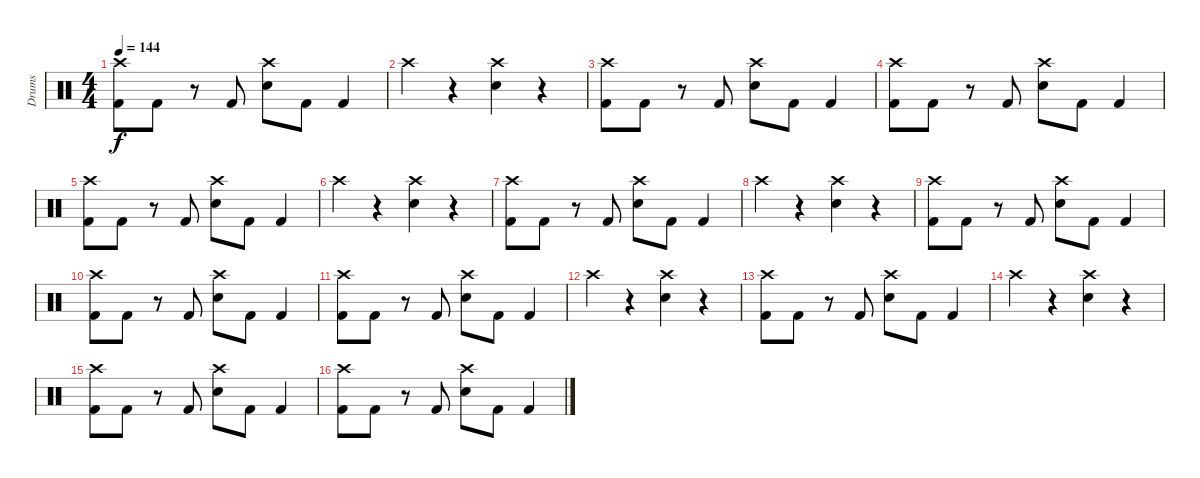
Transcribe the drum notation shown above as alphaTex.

\track ("Drums" "Drums") {instrument percussion}
\staff {score}
\articulation defaults
\ts (4 4)
\tempo 144
\clef neutral
\ks c
("Crash high (hit)" "Kick (hit) 2").8{dy f} "Kick (hit) 2".8 r.8 "Kick (hit) 2".8 ("Crash high (hit)" "Electric Snare (hit)").8 "Kick (hit) 2".8 "Kick (hit) 2".4 |
"Crash high (hit)".4 r.4 ("Crash high (hit)" "Electric Snare (hit)").4 r.4 |
("Crash high (hit)" "Kick (hit) 2").8 "Kick (hit) 2".8 r.8 "Kick (hit) 2".8 ("Crash high (hit)" "Electric Snare (hit)").8 "Kick (hit) 2".8 "Kick (hit) 2".4 |
("Crash high (hit)" "Kick (hit) 2").8 "Kick (hit) 2".8 r.8 "Kick (hit) 2".8 ("Crash high (hit)" "Electric Snare (hit)").8 "Kick (hit) 2".8 "Kick (hit) 2".4 |
("Crash high (hit)" "Kick (hit) 2").8 "Kick (hit) 2".8 r.8 "Kick (hit) 2".8 ("Crash high (hit)" "Electric Snare (hit)").8 "Kick (hit) 2".8 "Kick (hit) 2".4 |
"Crash high (hit)".4 r.4 ("Crash high (hit)" "Electric Snare (hit)").4 r.4 |
("Crash high (hit)" "Kick (hit) 2").8 "Kick (hit) 2".8 r.8 "Kick (hit) 2".8 ("Crash high (hit)" "Electric Snare (hit)").8 "Kick (hit) 2".8 "Kick (hit) 2".4 |
"Crash high (hit)".4 r.4 ("Crash high (hit)" "Electric Snare (hit)").4 r.4 |
("Crash high (hit)" "Kick (hit) 2").8 "Kick (hit) 2".8 r.8 "Kick (hit) 2".8 ("Crash high (hit)" "Electric Snare (hit)").8 "Kick (hit) 2".8 "Kick (hit) 2".4 |
("Crash high (hit)" "Kick (hit) 2").8 "Kick (hit) 2".8 r.8 "Kick (hit) 2".8 ("Crash high (hit)" "Electric Snare (hit)").8 "Kick (hit) 2".8 "Kick (hit) 2".4 |
("Crash high (hit)" "Kick (hit) 2").8 "Kick (hit) 2".8 r.8 "Kick (hit) 2".8 ("Crash high (hit)" "Electric Snare (hit)").8 "Kick (hit) 2".8 "Kick (hit) 2".4 |
"Crash high (hit)".4 r.4 ("Crash high (hit)" "Electric Snare (hit)").4 r.4 |
("Crash high (hit)" "Kick (hit) 2").8 "Kick (hit) 2".8 r.8 "Kick (hit) 2".8 ("Crash high (hit)" "Electric Snare (hit)").8 "Kick (hit) 2".8 "Kick (hit) 2".4 |
"Crash high (hit)".4 r.4 ("Crash high (hit)" "Electric Snare (hit)").4 r.4 |
("Crash high (hit)" "Kick (hit) 2").8 "Kick (hit) 2".8 r.8 "Kick (hit) 2".8 ("Crash high (hit)" "Electric Snare (hit)").8 "Kick (hit) 2".8 "Kick (hit) 2".4 |
("Crash high (hit)" "Kick (hit) 2").8 "Kick (hit) 2".8 r.8 "Kick (hit) 2".8 ("Crash high (hit)" "Electric Snare (hit)").8 "Kick (hit) 2".8 "Kick (hit) 2".4
